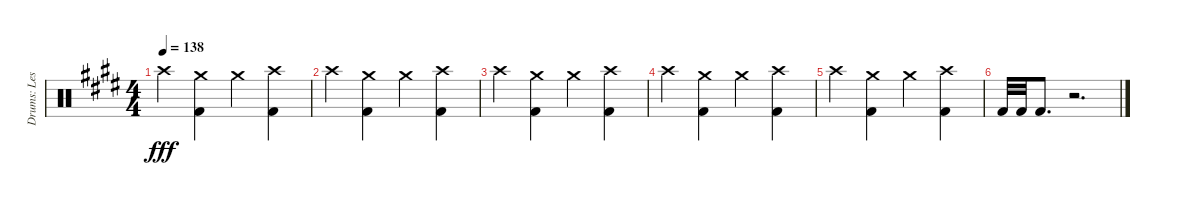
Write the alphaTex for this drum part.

\track ("Drums: Les" "Drums: Les") {instrument percussion}
\staff {score}
\articulation defaults
\ts (4 4)
\tempo 138
\clef neutral
\ks e "Crash high (hit)".4{dy fff}
("Crash medium (hit)" "Kick (hit) 2").4 "Crash medium (hit)".4 ("Crash high (hit)" "Kick (hit) 2").4 |
"Crash high (hit)".4 ("Crash medium (hit)" "Kick (hit) 2").4 "Crash medium (hit)".4 ("Crash high (hit)" "Kick (hit) 2").4 |
"Crash high (hit)".4 ("Crash medium (hit)" "Kick (hit) 2").4 "Crash medium (hit)".4 ("Crash high (hit)" "Kick (hit) 2").4 |
"Crash high (hit)".4 ("Crash medium (hit)" "Kick (hit) 2").4 "Crash medium (hit)".4 ("Crash high (hit)" "Kick (hit) 2").4 |
"Crash high (hit)".4 ("Crash medium (hit)" "Kick (hit) 2").4 "Crash medium (hit)".4 ("Crash high (hit)" "Kick (hit) 2").4 |
"Kick (hit) 2".32 "Kick (hit) 2".32 "Kick (hit) 2".8{d} r.2{d}
